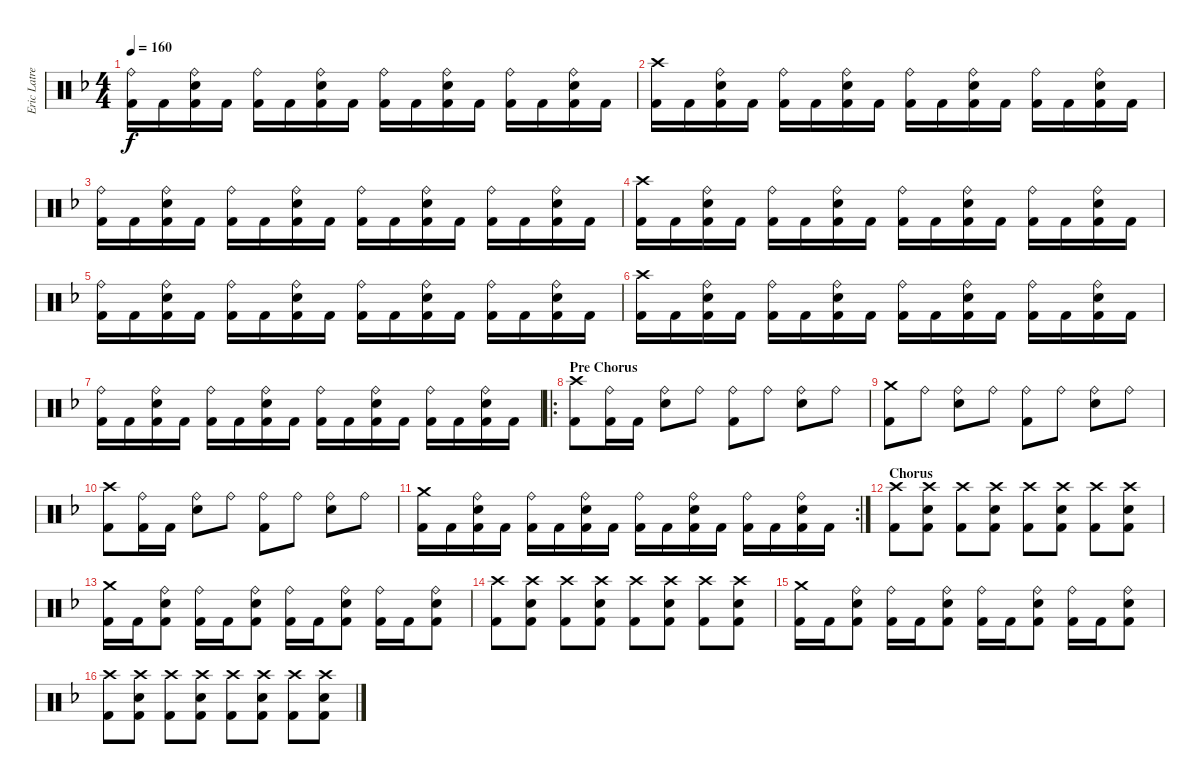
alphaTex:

\track ("Eric Latreille" "Eric Latre") {instrument percussion}
\staff {score}
\articulation defaults
\ts (4 4)
\tempo 160
\clef neutral
\ks dminor
("Ride (bell)" "Kick (hit) 2").16{dy f} "Kick (hit) 2".16 ("Ride (bell)" "Snare (hit) 2" "Kick (hit) 2").16 "Kick (hit) 2".16 ("Ride (bell)" "Kick (hit) 2").16 "Kick (hit) 2".16 ("Ride (bell)" "Snare (hit) 2" "Kick (hit) 2").16 "Kick (hit) 2".16 ("Ride (bell)" "Kick (hit) 2").16 "Kick (hit) 2".16 ("Ride (bell)" "Snare (hit) 2" "Kick (hit) 2").16 "Kick (hit) 2".16 ("Ride (bell)" "Kick (hit) 2").16 "Kick (hit) 2".16 ("Ride (bell)" "Snare (hit) 2" "Kick (hit) 2").16 "Kick (hit) 2".16 |
("Crash high (hit)" "Kick (hit) 2").16 "Kick (hit) 2".16 ("Ride (bell)" "Snare (hit) 2" "Kick (hit) 2").16 "Kick (hit) 2".16 ("Ride (bell)" "Kick (hit) 2").16 "Kick (hit) 2".16 ("Ride (bell)" "Snare (hit) 2" "Kick (hit) 2").16 "Kick (hit) 2".16 ("Ride (bell)" "Kick (hit) 2").16 "Kick (hit) 2".16 ("Ride (bell)" "Snare (hit) 2" "Kick (hit) 2").16 "Kick (hit) 2".16 ("Ride (bell)" "Kick (hit) 2").16 "Kick (hit) 2".16 ("Ride (bell)" "Snare (hit) 2" "Kick (hit) 2").16 "Kick (hit) 2".16 |
("Ride (bell)" "Kick (hit) 2").16 "Kick (hit) 2".16 ("Ride (bell)" "Snare (hit) 2" "Kick (hit) 2").16 "Kick (hit) 2".16 ("Ride (bell)" "Kick (hit) 2").16 "Kick (hit) 2".16 ("Ride (bell)" "Snare (hit) 2" "Kick (hit) 2").16 "Kick (hit) 2".16 ("Ride (bell)" "Kick (hit) 2").16 "Kick (hit) 2".16 ("Ride (bell)" "Snare (hit) 2" "Kick (hit) 2").16 "Kick (hit) 2".16 ("Ride (bell)" "Kick (hit) 2").16 "Kick (hit) 2".16 ("Ride (bell)" "Snare (hit) 2" "Kick (hit) 2").16 "Kick (hit) 2".16 |
("Crash high (hit)" "Kick (hit) 2").16 "Kick (hit) 2".16 ("Ride (bell)" "Snare (hit) 2" "Kick (hit) 2").16 "Kick (hit) 2".16 ("Ride (bell)" "Kick (hit) 2").16 "Kick (hit) 2".16 ("Ride (bell)" "Snare (hit) 2" "Kick (hit) 2").16 "Kick (hit) 2".16 ("Ride (bell)" "Kick (hit) 2").16 "Kick (hit) 2".16 ("Ride (bell)" "Snare (hit) 2" "Kick (hit) 2").16 "Kick (hit) 2".16 ("Ride (bell)" "Kick (hit) 2").16 "Kick (hit) 2".16 ("Ride (bell)" "Snare (hit) 2" "Kick (hit) 2").16 "Kick (hit) 2".16 |
("Ride (bell)" "Kick (hit) 2").16 "Kick (hit) 2".16 ("Ride (bell)" "Snare (hit) 2" "Kick (hit) 2").16 "Kick (hit) 2".16 ("Ride (bell)" "Kick (hit) 2").16 "Kick (hit) 2".16 ("Ride (bell)" "Snare (hit) 2" "Kick (hit) 2").16 "Kick (hit) 2".16 ("Ride (bell)" "Kick (hit) 2").16 "Kick (hit) 2".16 ("Ride (bell)" "Snare (hit) 2" "Kick (hit) 2").16 "Kick (hit) 2".16 ("Ride (bell)" "Kick (hit) 2").16 "Kick (hit) 2".16 ("Ride (bell)" "Snare (hit) 2" "Kick (hit) 2").16 "Kick (hit) 2".16 |
("Crash high (hit)" "Kick (hit) 2").16 "Kick (hit) 2".16 ("Ride (bell)" "Snare (hit) 2" "Kick (hit) 2").16 "Kick (hit) 2".16 ("Ride (bell)" "Kick (hit) 2").16 "Kick (hit) 2".16 ("Ride (bell)" "Snare (hit) 2" "Kick (hit) 2").16 "Kick (hit) 2".16 ("Ride (bell)" "Kick (hit) 2").16 "Kick (hit) 2".16 ("Ride (bell)" "Snare (hit) 2" "Kick (hit) 2").16 "Kick (hit) 2".16 ("Ride (bell)" "Kick (hit) 2").16 "Kick (hit) 2".16 ("Ride (bell)" "Snare (hit) 2" "Kick (hit) 2").16 "Kick (hit) 2".16 |
("Ride (bell)" "Kick (hit) 2").16 "Kick (hit) 2".16 ("Ride (bell)" "Snare (hit) 2" "Kick (hit) 2").16 "Kick (hit) 2".16 ("Ride (bell)" "Kick (hit) 2").16 "Kick (hit) 2".16 ("Ride (bell)" "Snare (hit) 2" "Kick (hit) 2").16 "Kick (hit) 2".16 ("Ride (bell)" "Kick (hit) 2").16 "Kick (hit) 2".16 ("Ride (bell)" "Snare (hit) 2" "Kick (hit) 2").16 "Kick (hit) 2".16 ("Ride (bell)" "Kick (hit) 2").16 "Kick (hit) 2".16 ("Ride (bell)" "Snare (hit) 2" "Kick (hit) 2").16 "Kick (hit) 2".16 |
\ro
\section ("" "Pre Chorus")
("Crash high (hit)" "Kick (hit) 2").8 ("Ride (bell)" "Kick (hit) 2").16 "Kick (hit) 2".16 ("Ride (bell)" "Snare (hit) 2").8 "Ride (bell)".8 ("Ride (bell)" "Kick (hit) 2").8 "Ride (bell)".8 ("Ride (bell)" "Snare (hit) 2").8 "Ride (bell)".8 |
("Crash medium (hit)" "Kick (hit) 2").8 "Ride (bell)".8 ("Ride (bell)" "Snare (hit) 2").8 "Ride (bell)".8 ("Ride (bell)" "Kick (hit) 2").8 "Ride (bell)".8 ("Ride (bell)" "Snare (hit) 2").8 "Ride (bell)".8 |
("Crash high (hit)" "Kick (hit) 2").8 ("Ride (bell)" "Kick (hit) 2").16 "Kick (hit) 2".16 ("Ride (bell)" "Snare (hit) 2").8 "Ride (bell)".8 ("Ride (bell)" "Kick (hit) 2").8 "Ride (bell)".8 ("Ride (bell)" "Snare (hit) 2").8 "Ride (bell)".8 |
\rc 2
("Crash medium (hit)" "Kick (hit) 2").16 "Kick (hit) 2".16 ("Ride (bell)" "Snare (hit) 2" "Kick (hit) 2").16 "Kick (hit) 2".16 ("Ride (bell)" "Kick (hit) 2").16 "Kick (hit) 2".16 ("Ride (bell)" "Snare (hit) 2" "Kick (hit) 2").16 "Kick (hit) 2".16 ("Ride (bell)" "Kick (hit) 2").16 "Kick (hit) 2".16 ("Ride (bell)" "Snare (hit) 2" "Kick (hit) 2").16 "Kick (hit) 2".16 ("Ride (bell)" "Kick (hit) 2").16 "Kick (hit) 2".16 ("Ride (bell)" "Snare (hit) 2" "Kick (hit) 2").16 "Kick (hit) 2".16 |
\section ("" "Chorus")
("Crash high (hit)" "Kick (hit) 2").8 ("Crash high (hit)" "Snare (hit) 2" "Kick (hit) 2").8 ("Crash high (hit)" "Kick (hit) 2").8 ("Crash high (hit)" "Snare (hit) 2" "Kick (hit) 2").8 ("Crash high (hit)" "Kick (hit) 2").8 ("Crash high (hit)" "Snare (hit) 2" "Kick (hit) 2").8 ("Crash high (hit)" "Kick (hit) 2").8 ("Crash high (hit)" "Snare (hit) 2" "Kick (hit) 2").8 |
("Crash medium (hit)" "Kick (hit) 2").16 "Kick (hit) 2".16 ("Ride (bell)" "Snare (hit) 2" "Kick (hit) 2").8 ("Ride (bell)" "Kick (hit) 2").16 "Kick (hit) 2".16 ("Ride (bell)" "Snare (hit) 2" "Kick (hit) 2").8 ("Ride (bell)" "Kick (hit) 2").16 "Kick (hit) 2".16 ("Ride (bell)" "Snare (hit) 2" "Kick (hit) 2").8 ("Ride (bell)" "Kick (hit) 2").16 "Kick (hit) 2".16 ("Ride (bell)" "Snare (hit) 2" "Kick (hit) 2").8 |
("Crash high (hit)" "Kick (hit) 2").8 ("Crash high (hit)" "Snare (hit) 2" "Kick (hit) 2").8 ("Crash high (hit)" "Kick (hit) 2").8 ("Crash high (hit)" "Snare (hit) 2" "Kick (hit) 2").8 ("Crash high (hit)" "Kick (hit) 2").8 ("Crash high (hit)" "Snare (hit) 2" "Kick (hit) 2").8 ("Crash high (hit)" "Kick (hit) 2").8 ("Crash high (hit)" "Snare (hit) 2" "Kick (hit) 2").8 |
("Crash medium (hit)" "Kick (hit) 2").16 "Kick (hit) 2".16 ("Ride (bell)" "Snare (hit) 2" "Kick (hit) 2").8 ("Ride (bell)" "Kick (hit) 2").16 "Kick (hit) 2".16 ("Ride (bell)" "Snare (hit) 2" "Kick (hit) 2").8 ("Ride (bell)" "Kick (hit) 2").16 "Kick (hit) 2".16 ("Ride (bell)" "Snare (hit) 2" "Kick (hit) 2").8 ("Ride (bell)" "Kick (hit) 2").16 "Kick (hit) 2".16 ("Ride (bell)" "Snare (hit) 2" "Kick (hit) 2").8 |
("Crash high (hit)" "Kick (hit) 2").8 ("Crash high (hit)" "Snare (hit) 2" "Kick (hit) 2").8 ("Crash high (hit)" "Kick (hit) 2").8 ("Crash high (hit)" "Snare (hit) 2" "Kick (hit) 2").8 ("Crash high (hit)" "Kick (hit) 2").8 ("Crash high (hit)" "Snare (hit) 2" "Kick (hit) 2").8 ("Crash high (hit)" "Kick (hit) 2").8 ("Crash high (hit)" "Snare (hit) 2" "Kick (hit) 2").8
